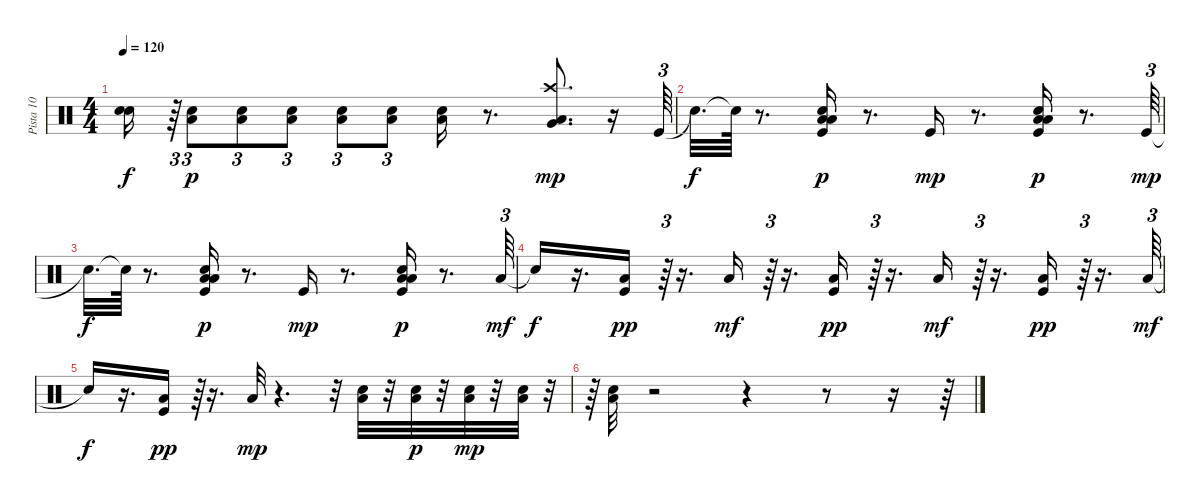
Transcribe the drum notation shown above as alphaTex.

\track ("Pista 10" "Pista 10") {instrument percussion}
\staff {score}
\articulation defaults
\ts (4 4)
\tempo 120
\clef neutral
\ks c
("Snare (hit)"{t} "Snare (hit)"{t}).16{dy f} r.64{tu (3 2)} ("Low Tom (hit)" "Snare (hit) 2").8{tu (3 2) dy p} ("Low Tom (hit)" "Snare (hit) 2").8{tu (3 2)} ("Low Tom (hit)" "Snare (hit) 2").8{tu (3 2)} ("Low Tom (hit)" "Snare (hit) 2").8{tu (3 2)} ("Low Tom (hit)" "Snare (hit) 2").8{tu (3 2)} ("Low Tom (hit)" "Snare (hit) 2").16 r.8{d} ("Low Floor Tom (hit)" "Crash high (hit)" "Very Low Tom (hit)").8{d dy mp} r.16 "Kick (hit)".64{tu (3 2)} |
"Snare (hit)"{t}.32{d dy f} "Snare (hit)"{t}.64 r.8{d} ("Kick (hit)" "Low Tom (hit)" "Snare (hit) 2" "Low Floor Tom (hit)").16{dy p} r.8{d} "Kick (hit)".16{dy mp} r.8{d} ("Kick (hit)" "Low Tom (hit)" "Snare (hit) 2" "Low Floor Tom (hit)").16{dy p} r.8{d} "Kick (hit)".64{tu (3 2) dy mp} |
"Snare (hit)"{t}.32{d dy f} "Snare (hit)"{t}.64 r.8{d} ("Kick (hit)" "Low Tom (hit)" "Snare (hit) 2" "Low Floor Tom (hit)").16{dy p} r.8{d} "Kick (hit)".16{dy mp} r.8{d} ("Kick (hit)" "Low Tom (hit)" "Snare (hit) 2" "Low Floor Tom (hit)").16{dy p} r.8{d} "Low Tom (hit)".64{tu (3 2) dy mf} |
"Snare (hit)"{t}.16{dy f} r.16{d} ("Low Floor Tom (hit)" "Kick (hit)").16{dy pp} r.64{tu (3 2)} r.16{d} "Low Tom (hit)".16{dy mf} r.64{tu (3 2)} r.16{d} ("Low Floor Tom (hit)" "Kick (hit)").16{dy pp} r.64{tu (3 2)} r.16{d} "Low Tom (hit)".16{dy mf} r.64{tu (3 2)} r.16{d} ("Low Floor Tom (hit)" "Kick (hit)").16{dy pp} r.64{tu (3 2)} r.16{d} "Low Tom (hit)".64{tu (3 2) dy mf} |
"Snare (hit)"{t}.16{dy f} r.16{d} ("Low Floor Tom (hit)" "Kick (hit)").16{dy pp} r.64{tu (3 2)} r.16{d} "Low Tom (hit)".32{dy mp} r.4{d} r.32 ("Snare (hit) 2" "Low Floor Tom (hit)").32 r.32 ("Snare (hit) 2" "Low Floor Tom (hit)").32{dy p} r.32 ("Snare (hit) 2" "Low Floor Tom (hit)").32{dy mp} r.32 ("Snare (hit) 2" "Low Floor Tom (hit)").32 r.32{tu (3 2)} |
r.64{tu (3 2)} ("Snare (hit) 2" "Low Floor Tom (hit)").32 r.2 r.4 r.8 r.16 r.64
